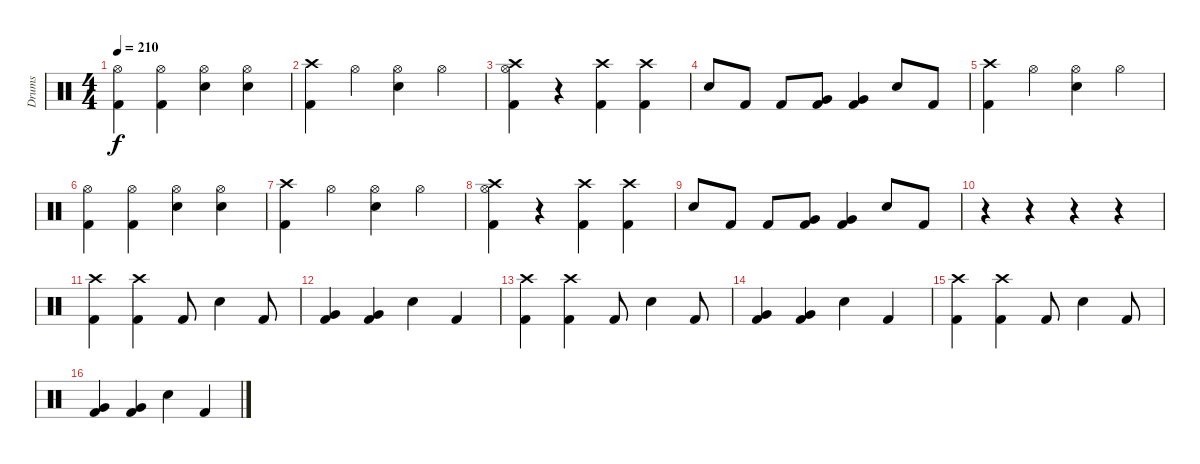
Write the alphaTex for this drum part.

\track ("Drums" "Drums") {instrument percussion}
\staff {score}
\articulation defaults
\ts (4 4)
\tempo 210
\clef neutral
\ks c
("Hi-Hat (open)" "Kick (hit) 2").4{dy f} ("Hi-Hat (open)" "Kick (hit) 2").4 ("Hi-Hat (open)" "Snare (hit) 2").4 ("Hi-Hat (open)" "Snare (hit) 2").4 |
("Crash high (hit)" "Kick (hit) 2").4 "Hi-Hat (open)".4 ("Snare (hit) 2" "Hi-Hat (open)").4 "Hi-Hat (open)".4 |
("Hi-Hat (open)" "Kick (hit) 2" "Crash high (hit)").4 r.4 ("Crash high (hit)" "Kick (hit) 2").4 ("Crash high (hit)" "Kick (hit) 2").4 |
"Snare (hit) 2".8 "Kick (hit) 2".8 "Kick (hit) 2".8 ("Kick (hit) 2" "Very Low Tom (hit)").8 ("Very Low Tom (hit)" "Kick (hit) 2").4 "Snare (hit) 2".8 "Kick (hit) 2".8 |
("Crash high (hit)" "Kick (hit) 2").4 "Hi-Hat (open)".4 ("Hi-Hat (open)" "Snare (hit) 2").4 "Hi-Hat (open)".4 |
("Hi-Hat (open)" "Kick (hit) 2").4 ("Hi-Hat (open)" "Kick (hit) 2").4 ("Hi-Hat (open)" "Snare (hit) 2").4 ("Hi-Hat (open)" "Snare (hit) 2").4 |
("Crash high (hit)" "Kick (hit) 2").4 "Hi-Hat (open)".4 ("Snare (hit) 2" "Hi-Hat (open)").4 "Hi-Hat (open)".4 |
("Hi-Hat (open)" "Kick (hit) 2" "Crash high (hit)").4 r.4 ("Crash high (hit)" "Kick (hit) 2").4 ("Crash high (hit)" "Kick (hit) 2").4 |
"Snare (hit) 2".8 "Kick (hit) 2".8 "Kick (hit) 2".8 ("Kick (hit) 2" "Very Low Tom (hit)").8 ("Very Low Tom (hit)" "Kick (hit) 2").4 "Snare (hit) 2".8 "Kick (hit) 2".8 |
r.4 r.4 r.4 r.4 |
("Kick (hit) 2" "Crash high (hit)").4 ("Kick (hit) 2" "Crash high (hit)").4 "Kick (hit) 2".8 "Snare (hit) 2".4 "Kick (hit) 2".8 |
("Very Low Tom (hit)" "Kick (hit) 2").4 ("Kick (hit) 2" "Very Low Tom (hit)").4 "Snare (hit) 2".4 "Kick (hit) 2".4 |
("Kick (hit) 2" "Crash high (hit)").4 ("Kick (hit) 2" "Crash high (hit)").4 "Kick (hit) 2".8 "Snare (hit) 2".4 "Kick (hit) 2".8 |
("Very Low Tom (hit)" "Kick (hit) 2").4 ("Kick (hit) 2" "Very Low Tom (hit)").4 "Snare (hit) 2".4 "Kick (hit) 2".4 |
("Kick (hit) 2" "Crash high (hit)").4 ("Kick (hit) 2" "Crash high (hit)").4 "Kick (hit) 2".8 "Snare (hit) 2".4 "Kick (hit) 2".8 |
("Very Low Tom (hit)" "Kick (hit) 2").4 ("Kick (hit) 2" "Very Low Tom (hit)").4 "Snare (hit) 2".4 "Kick (hit) 2".4
